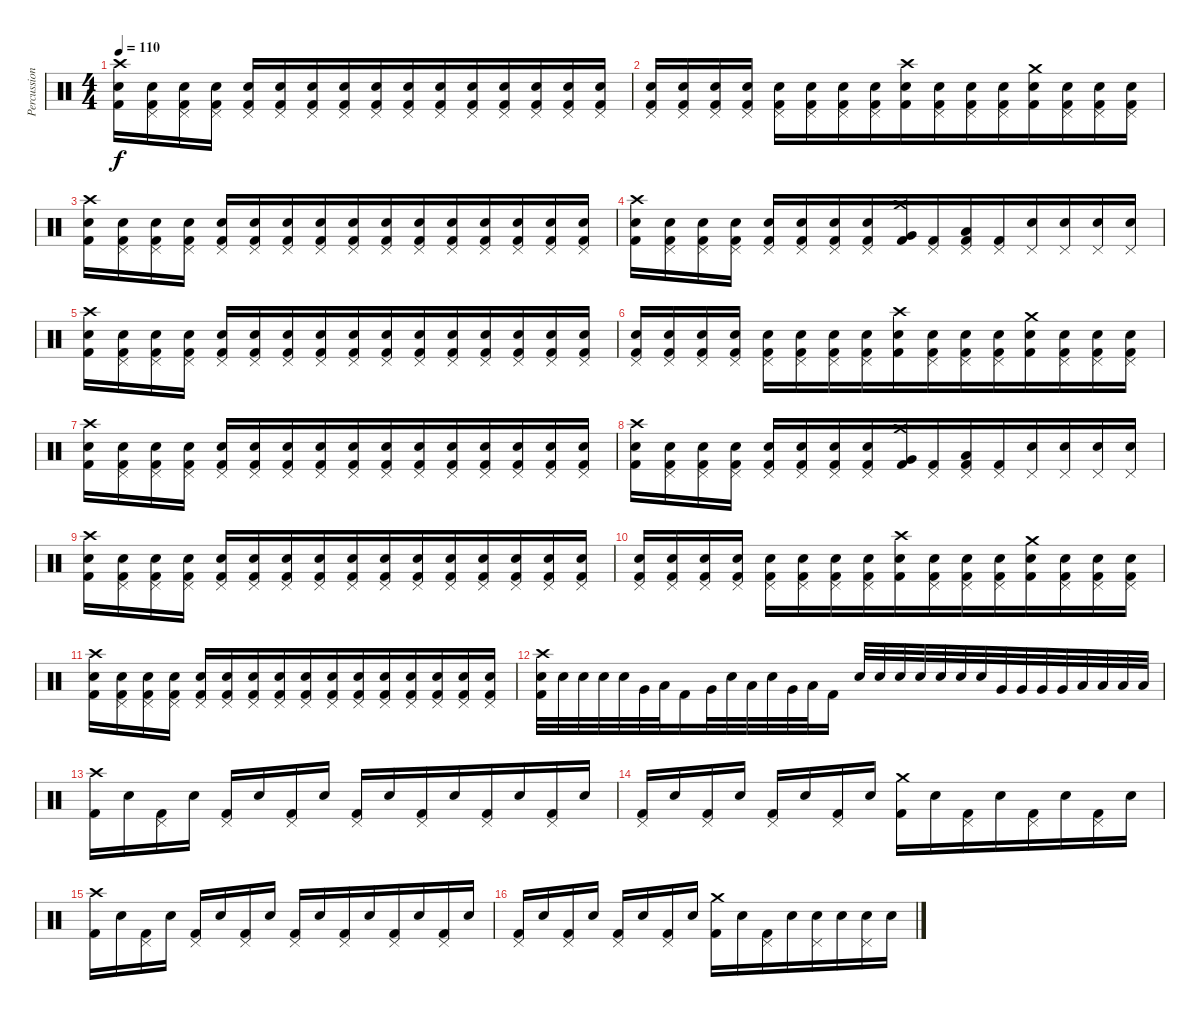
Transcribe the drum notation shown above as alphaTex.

\track ("Percussion" "Percussion") {instrument percussion bank 36}
\staff {score}
\articulation defaults
\ts (4 4)
\tempo 110
\clef neutral
\ks c
("Crash high (hit)" "Electric Snare (hit)" "Kick (hit) 2").16{dy f} ("Pedal Hi-Hat (hit)" "Electric Snare (hit)" "Kick (hit) 2").16 ("Pedal Hi-Hat (hit)" "Electric Snare (hit)" "Kick (hit) 2").16 ("Pedal Hi-Hat (hit)" "Electric Snare (hit)" "Kick (hit) 2").16 ("Pedal Hi-Hat (hit)" "Electric Snare (hit)" "Kick (hit) 2").16 ("Pedal Hi-Hat (hit)" "Electric Snare (hit)" "Kick (hit) 2").16 ("Pedal Hi-Hat (hit)" "Electric Snare (hit)" "Kick (hit) 2").16 ("Pedal Hi-Hat (hit)" "Electric Snare (hit)" "Kick (hit) 2").16{beam merge} ("Pedal Hi-Hat (hit)" "Electric Snare (hit)" "Kick (hit) 2").16{beam merge} ("Pedal Hi-Hat (hit)" "Electric Snare (hit)" "Kick (hit) 2").16{beam merge} ("Pedal Hi-Hat (hit)" "Electric Snare (hit)" "Kick (hit) 2").16 ("Pedal Hi-Hat (hit)" "Electric Snare (hit)" "Kick (hit) 2").16{beam merge} ("Pedal Hi-Hat (hit)" "Electric Snare (hit)" "Kick (hit) 2").16{beam merge} ("Pedal Hi-Hat (hit)" "Electric Snare (hit)" "Kick (hit) 2").16{beam merge} ("Pedal Hi-Hat (hit)" "Electric Snare (hit)" "Kick (hit) 2").16 ("Pedal Hi-Hat (hit)" "Electric Snare (hit)" "Kick (hit) 2").16 |
("Pedal Hi-Hat (hit)" "Electric Snare (hit)" "Kick (hit) 2").16 ("Pedal Hi-Hat (hit)" "Electric Snare (hit)" "Kick (hit) 2").16 ("Pedal Hi-Hat (hit)" "Electric Snare (hit)" "Kick (hit) 2").16 ("Pedal Hi-Hat (hit)" "Electric Snare (hit)" "Kick (hit) 2").16 ("Pedal Hi-Hat (hit)" "Electric Snare (hit)" "Kick (hit) 2").16 ("Pedal Hi-Hat (hit)" "Electric Snare (hit)" "Kick (hit) 2").16 ("Pedal Hi-Hat (hit)" "Electric Snare (hit)" "Kick (hit) 2").16 ("Pedal Hi-Hat (hit)" "Electric Snare (hit)" "Kick (hit) 2").16{beam merge} ("Crash high (hit)" "Electric Snare (hit)" "Kick (hit) 2").16{beam merge} ("Pedal Hi-Hat (hit)" "Electric Snare (hit)" "Kick (hit) 2").16{beam merge} ("Pedal Hi-Hat (hit)" "Electric Snare (hit)" "Kick (hit) 2").16 ("Pedal Hi-Hat (hit)" "Electric Snare (hit)" "Kick (hit) 2").16{beam merge} ("Crash medium (hit)" "Electric Snare (hit)" "Kick (hit) 2").16{beam merge} ("Pedal Hi-Hat (hit)" "Electric Snare (hit)" "Kick (hit) 2").16{beam merge} ("Pedal Hi-Hat (hit)" "Electric Snare (hit)" "Kick (hit) 2").16 ("Pedal Hi-Hat (hit)" "Electric Snare (hit)" "Kick (hit) 2").16 |
("Crash high (hit)" "Electric Snare (hit)" "Kick (hit) 2").16 ("Pedal Hi-Hat (hit)" "Electric Snare (hit)" "Kick (hit) 2").16 ("Pedal Hi-Hat (hit)" "Electric Snare (hit)" "Kick (hit) 2").16 ("Pedal Hi-Hat (hit)" "Electric Snare (hit)" "Kick (hit) 2").16 ("Pedal Hi-Hat (hit)" "Electric Snare (hit)" "Kick (hit) 2").16 ("Pedal Hi-Hat (hit)" "Electric Snare (hit)" "Kick (hit) 2").16 ("Pedal Hi-Hat (hit)" "Electric Snare (hit)" "Kick (hit) 2").16 ("Pedal Hi-Hat (hit)" "Electric Snare (hit)" "Kick (hit) 2").16{beam merge} ("Pedal Hi-Hat (hit)" "Electric Snare (hit)" "Kick (hit) 2").16{beam merge} ("Pedal Hi-Hat (hit)" "Electric Snare (hit)" "Kick (hit) 2").16{beam merge} ("Pedal Hi-Hat (hit)" "Electric Snare (hit)" "Kick (hit) 2").16 ("Pedal Hi-Hat (hit)" "Electric Snare (hit)" "Kick (hit) 2").16{beam merge} ("Pedal Hi-Hat (hit)" "Electric Snare (hit)" "Kick (hit) 2").16{beam merge} ("Pedal Hi-Hat (hit)" "Electric Snare (hit)" "Kick (hit) 2").16{beam merge} ("Pedal Hi-Hat (hit)" "Electric Snare (hit)" "Kick (hit) 2").16 ("Pedal Hi-Hat (hit)" "Electric Snare (hit)" "Kick (hit) 2").16 |
("Crash high (hit)" "Electric Snare (hit)" "Kick (hit) 2").16 ("Pedal Hi-Hat (hit)" "Electric Snare (hit)" "Kick (hit) 2").16 ("Pedal Hi-Hat (hit)" "Electric Snare (hit)" "Kick (hit) 2").16 ("Pedal Hi-Hat (hit)" "Electric Snare (hit)" "Kick (hit) 2").16 ("Pedal Hi-Hat (hit)" "Electric Snare (hit)" "Kick (hit) 2").16 ("Pedal Hi-Hat (hit)" "Electric Snare (hit)" "Kick (hit) 2").16 ("Pedal Hi-Hat (hit)" "Electric Snare (hit)" "Kick (hit) 2").16 ("Pedal Hi-Hat (hit)" "Electric Snare (hit)" "Kick (hit) 2").16{beam merge} ("Crash medium (hit)" "Very Low Tom (hit)" "Kick (hit) 2").16{beam merge} ("Pedal Hi-Hat (hit)" "Kick (hit) 2").16{beam merge} ("Pedal Hi-Hat (hit)" "Low Tom (hit)" "Kick (hit) 2").16 ("Pedal Hi-Hat (hit)" "Kick (hit) 2").16{beam merge} ("Pedal Hi-Hat (hit)" "Electric Snare (hit)").16{beam merge} ("Pedal Hi-Hat (hit)" "Electric Snare (hit)").16{beam merge} ("Pedal Hi-Hat (hit)" "Electric Snare (hit)").16 ("Pedal Hi-Hat (hit)" "Electric Snare (hit)").16 |
("Crash high (hit)" "Electric Snare (hit)" "Kick (hit) 2").16 ("Pedal Hi-Hat (hit)" "Electric Snare (hit)" "Kick (hit) 2").16 ("Pedal Hi-Hat (hit)" "Electric Snare (hit)" "Kick (hit) 2").16 ("Pedal Hi-Hat (hit)" "Electric Snare (hit)" "Kick (hit) 2").16 ("Pedal Hi-Hat (hit)" "Electric Snare (hit)" "Kick (hit) 2").16 ("Pedal Hi-Hat (hit)" "Electric Snare (hit)" "Kick (hit) 2").16 ("Pedal Hi-Hat (hit)" "Electric Snare (hit)" "Kick (hit) 2").16 ("Pedal Hi-Hat (hit)" "Electric Snare (hit)" "Kick (hit) 2").16{beam merge} ("Pedal Hi-Hat (hit)" "Electric Snare (hit)" "Kick (hit) 2").16{beam merge} ("Pedal Hi-Hat (hit)" "Electric Snare (hit)" "Kick (hit) 2").16{beam merge} ("Pedal Hi-Hat (hit)" "Electric Snare (hit)" "Kick (hit) 2").16 ("Pedal Hi-Hat (hit)" "Electric Snare (hit)" "Kick (hit) 2").16{beam merge} ("Pedal Hi-Hat (hit)" "Electric Snare (hit)" "Kick (hit) 2").16{beam merge} ("Pedal Hi-Hat (hit)" "Electric Snare (hit)" "Kick (hit) 2").16{beam merge} ("Pedal Hi-Hat (hit)" "Electric Snare (hit)" "Kick (hit) 2").16 ("Pedal Hi-Hat (hit)" "Electric Snare (hit)" "Kick (hit) 2").16 |
("Pedal Hi-Hat (hit)" "Electric Snare (hit)" "Kick (hit) 2").16 ("Pedal Hi-Hat (hit)" "Electric Snare (hit)" "Kick (hit) 2").16 ("Pedal Hi-Hat (hit)" "Electric Snare (hit)" "Kick (hit) 2").16 ("Pedal Hi-Hat (hit)" "Electric Snare (hit)" "Kick (hit) 2").16 ("Pedal Hi-Hat (hit)" "Electric Snare (hit)" "Kick (hit) 2").16 ("Pedal Hi-Hat (hit)" "Electric Snare (hit)" "Kick (hit) 2").16 ("Pedal Hi-Hat (hit)" "Electric Snare (hit)" "Kick (hit) 2").16 ("Pedal Hi-Hat (hit)" "Electric Snare (hit)" "Kick (hit) 2").16{beam merge} ("Crash high (hit)" "Electric Snare (hit)" "Kick (hit) 2").16{beam merge} ("Pedal Hi-Hat (hit)" "Electric Snare (hit)" "Kick (hit) 2").16{beam merge} ("Pedal Hi-Hat (hit)" "Electric Snare (hit)" "Kick (hit) 2").16 ("Pedal Hi-Hat (hit)" "Electric Snare (hit)" "Kick (hit) 2").16{beam merge} ("Crash medium (hit)" "Electric Snare (hit)" "Kick (hit) 2").16{beam merge} ("Pedal Hi-Hat (hit)" "Electric Snare (hit)" "Kick (hit) 2").16{beam merge} ("Pedal Hi-Hat (hit)" "Electric Snare (hit)" "Kick (hit) 2").16 ("Pedal Hi-Hat (hit)" "Electric Snare (hit)" "Kick (hit) 2").16 |
("Crash high (hit)" "Electric Snare (hit)" "Kick (hit) 2").16 ("Pedal Hi-Hat (hit)" "Electric Snare (hit)" "Kick (hit) 2").16 ("Pedal Hi-Hat (hit)" "Electric Snare (hit)" "Kick (hit) 2").16 ("Pedal Hi-Hat (hit)" "Electric Snare (hit)" "Kick (hit) 2").16 ("Pedal Hi-Hat (hit)" "Electric Snare (hit)" "Kick (hit) 2").16 ("Pedal Hi-Hat (hit)" "Electric Snare (hit)" "Kick (hit) 2").16 ("Pedal Hi-Hat (hit)" "Electric Snare (hit)" "Kick (hit) 2").16 ("Pedal Hi-Hat (hit)" "Electric Snare (hit)" "Kick (hit) 2").16{beam merge} ("Pedal Hi-Hat (hit)" "Electric Snare (hit)" "Kick (hit) 2").16{beam merge} ("Pedal Hi-Hat (hit)" "Electric Snare (hit)" "Kick (hit) 2").16{beam merge} ("Pedal Hi-Hat (hit)" "Electric Snare (hit)" "Kick (hit) 2").16 ("Pedal Hi-Hat (hit)" "Electric Snare (hit)" "Kick (hit) 2").16{beam merge} ("Pedal Hi-Hat (hit)" "Electric Snare (hit)" "Kick (hit) 2").16{beam merge} ("Pedal Hi-Hat (hit)" "Electric Snare (hit)" "Kick (hit) 2").16{beam merge} ("Pedal Hi-Hat (hit)" "Electric Snare (hit)" "Kick (hit) 2").16 ("Pedal Hi-Hat (hit)" "Electric Snare (hit)" "Kick (hit) 2").16 |
("Crash high (hit)" "Electric Snare (hit)" "Kick (hit) 2").16 ("Pedal Hi-Hat (hit)" "Electric Snare (hit)" "Kick (hit) 2").16 ("Pedal Hi-Hat (hit)" "Electric Snare (hit)" "Kick (hit) 2").16 ("Pedal Hi-Hat (hit)" "Electric Snare (hit)" "Kick (hit) 2").16 ("Pedal Hi-Hat (hit)" "Electric Snare (hit)" "Kick (hit) 2").16 ("Pedal Hi-Hat (hit)" "Electric Snare (hit)" "Kick (hit) 2").16 ("Pedal Hi-Hat (hit)" "Electric Snare (hit)" "Kick (hit) 2").16 ("Pedal Hi-Hat (hit)" "Electric Snare (hit)" "Kick (hit) 2").16{beam merge} ("Crash medium (hit)" "Very Low Tom (hit)" "Kick (hit) 2").16{beam merge} ("Pedal Hi-Hat (hit)" "Kick (hit) 2").16{beam merge} ("Pedal Hi-Hat (hit)" "Low Tom (hit)" "Kick (hit) 2").16 ("Pedal Hi-Hat (hit)" "Kick (hit) 2").16{beam merge} ("Pedal Hi-Hat (hit)" "Electric Snare (hit)").16{beam merge} ("Pedal Hi-Hat (hit)" "Electric Snare (hit)").16{beam merge} ("Pedal Hi-Hat (hit)" "Electric Snare (hit)").16 ("Pedal Hi-Hat (hit)" "Electric Snare (hit)").16 |
("Crash high (hit)" "Electric Snare (hit)" "Kick (hit) 2").16 ("Pedal Hi-Hat (hit)" "Electric Snare (hit)" "Kick (hit) 2").16 ("Pedal Hi-Hat (hit)" "Electric Snare (hit)" "Kick (hit) 2").16 ("Pedal Hi-Hat (hit)" "Electric Snare (hit)" "Kick (hit) 2").16 ("Pedal Hi-Hat (hit)" "Electric Snare (hit)" "Kick (hit) 2").16 ("Pedal Hi-Hat (hit)" "Electric Snare (hit)" "Kick (hit) 2").16 ("Pedal Hi-Hat (hit)" "Electric Snare (hit)" "Kick (hit) 2").16 ("Pedal Hi-Hat (hit)" "Electric Snare (hit)" "Kick (hit) 2").16{beam merge} ("Pedal Hi-Hat (hit)" "Electric Snare (hit)" "Kick (hit) 2").16{beam merge} ("Pedal Hi-Hat (hit)" "Electric Snare (hit)" "Kick (hit) 2").16{beam merge} ("Pedal Hi-Hat (hit)" "Electric Snare (hit)" "Kick (hit) 2").16 ("Pedal Hi-Hat (hit)" "Electric Snare (hit)" "Kick (hit) 2").16{beam merge} ("Pedal Hi-Hat (hit)" "Electric Snare (hit)" "Kick (hit) 2").16{beam merge} ("Pedal Hi-Hat (hit)" "Electric Snare (hit)" "Kick (hit) 2").16{beam merge} ("Pedal Hi-Hat (hit)" "Electric Snare (hit)" "Kick (hit) 2").16 ("Pedal Hi-Hat (hit)" "Electric Snare (hit)" "Kick (hit) 2").16 |
("Pedal Hi-Hat (hit)" "Electric Snare (hit)" "Kick (hit) 2").16 ("Pedal Hi-Hat (hit)" "Electric Snare (hit)" "Kick (hit) 2").16 ("Pedal Hi-Hat (hit)" "Electric Snare (hit)" "Kick (hit) 2").16 ("Pedal Hi-Hat (hit)" "Electric Snare (hit)" "Kick (hit) 2").16 ("Pedal Hi-Hat (hit)" "Electric Snare (hit)" "Kick (hit) 2").16 ("Pedal Hi-Hat (hit)" "Electric Snare (hit)" "Kick (hit) 2").16 ("Pedal Hi-Hat (hit)" "Electric Snare (hit)" "Kick (hit) 2").16 ("Pedal Hi-Hat (hit)" "Electric Snare (hit)" "Kick (hit) 2").16{beam merge} ("Crash high (hit)" "Electric Snare (hit)" "Kick (hit) 2").16{beam merge} ("Pedal Hi-Hat (hit)" "Electric Snare (hit)" "Kick (hit) 2").16{beam merge} ("Pedal Hi-Hat (hit)" "Electric Snare (hit)" "Kick (hit) 2").16 ("Pedal Hi-Hat (hit)" "Electric Snare (hit)" "Kick (hit) 2").16{beam merge} ("Crash medium (hit)" "Electric Snare (hit)" "Kick (hit) 2").16{beam merge} ("Pedal Hi-Hat (hit)" "Electric Snare (hit)" "Kick (hit) 2").16{beam merge} ("Pedal Hi-Hat (hit)" "Electric Snare (hit)" "Kick (hit) 2").16 ("Pedal Hi-Hat (hit)" "Electric Snare (hit)" "Kick (hit) 2").16 |
("Crash high (hit)" "Electric Snare (hit)" "Kick (hit) 2").16 ("Pedal Hi-Hat (hit)" "Electric Snare (hit)" "Kick (hit) 2").16 ("Pedal Hi-Hat (hit)" "Electric Snare (hit)" "Kick (hit) 2").16 ("Pedal Hi-Hat (hit)" "Electric Snare (hit)" "Kick (hit) 2").16 ("Pedal Hi-Hat (hit)" "Electric Snare (hit)" "Kick (hit) 2").16 ("Pedal Hi-Hat (hit)" "Electric Snare (hit)" "Kick (hit) 2").16 ("Pedal Hi-Hat (hit)" "Electric Snare (hit)" "Kick (hit) 2").16 ("Pedal Hi-Hat (hit)" "Electric Snare (hit)" "Kick (hit) 2").16{beam merge} ("Pedal Hi-Hat (hit)" "Electric Snare (hit)" "Kick (hit) 2").16{beam merge} ("Pedal Hi-Hat (hit)" "Electric Snare (hit)" "Kick (hit) 2").16{beam merge} ("Pedal Hi-Hat (hit)" "Electric Snare (hit)" "Kick (hit) 2").16 ("Pedal Hi-Hat (hit)" "Electric Snare (hit)" "Kick (hit) 2").16{beam merge} ("Pedal Hi-Hat (hit)" "Electric Snare (hit)" "Kick (hit) 2").16{beam merge} ("Pedal Hi-Hat (hit)" "Electric Snare (hit)" "Kick (hit) 2").16{beam merge} ("Pedal Hi-Hat (hit)" "Electric Snare (hit)" "Kick (hit) 2").16 ("Pedal Hi-Hat (hit)" "Electric Snare (hit)" "Kick (hit) 2").16 |
("Crash high (hit)" "Electric Snare (hit)" "Kick (hit) 2").32 "Electric Snare (hit)".32 "Electric Snare (hit)".32 "Electric Snare (hit)".32 "Electric Snare (hit)".32 "Very Low Tom (hit)".32 "Low Floor Tom (hit)".32 "Kick (hit) 2".16{beam merge} "Very Low Tom (hit)".32{beam merge} "Electric Snare (hit)".32{beam merge} "Low Tom (hit)".32 "Electric Snare (hit)".32{beam merge} "Very Low Tom (hit)".32{beam merge} "Low Floor Tom (hit)".32{beam merge} "Kick (hit) 2".16 "Electric Snare (hit)".32{beam merge} "Electric Snare (hit)".32 "Electric Snare (hit)".32 "Electric Snare (hit)".32 "Electric Snare (hit)".32 "Electric Snare (hit)".32 "Electric Snare (hit)".32{beam merge} "Very Low Tom (hit)".32 "Very Low Tom (hit)".32{beam merge} "Very Low Tom (hit)".32 "Very Low Tom (hit)".32{beam merge} "Low Floor Tom (hit)".32 "Low Floor Tom (hit)".32 "Low Floor Tom (hit)".32{beam merge} "Low Floor Tom (hit)".32 |
("Crash high (hit)" "Kick (hit) 2").16 "Electric Snare (hit)".16{beam merge} ("Pedal Hi-Hat (hit)" "Kick (hit) 2").16 "Electric Snare (hit)".16 ("Pedal Hi-Hat (hit)" "Kick (hit) 2").16{beam merge} "Electric Snare (hit)".16{beam merge} ("Pedal Hi-Hat (hit)" "Kick (hit) 2").16 "Electric Snare (hit)".16 ("Pedal Hi-Hat (hit)" "Kick (hit) 2").16 "Electric Snare (hit)".16{beam merge} ("Pedal Hi-Hat (hit)" "Kick (hit) 2").16 "Electric Snare (hit)".16{beam merge} ("Pedal Hi-Hat (hit)" "Kick (hit) 2").16{beam merge} "Electric Snare (hit)".16{beam merge} ("Pedal Hi-Hat (hit)" "Kick (hit) 2").16{beam merge} "Electric Snare (hit)".16 |
("Pedal Hi-Hat (hit)" "Kick (hit) 2").16 "Electric Snare (hit)".16{beam merge} ("Pedal Hi-Hat (hit)" "Kick (hit) 2").16 "Electric Snare (hit)".16 ("Pedal Hi-Hat (hit)" "Kick (hit) 2").16{beam merge} "Electric Snare (hit)".16{beam merge} ("Pedal Hi-Hat (hit)" "Kick (hit) 2").16 "Electric Snare (hit)".16 ("Crash medium (hit)" "Kick (hit) 2").16 "Electric Snare (hit)".16{beam merge} ("Pedal Hi-Hat (hit)" "Kick (hit) 2").16 "Electric Snare (hit)".16{beam merge} ("Pedal Hi-Hat (hit)" "Kick (hit) 2").16{beam merge} "Electric Snare (hit)".16{beam merge} ("Pedal Hi-Hat (hit)" "Kick (hit) 2").16{beam merge} "Electric Snare (hit)".16 |
("Crash high (hit)" "Kick (hit) 2").16 "Electric Snare (hit)".16{beam merge} ("Pedal Hi-Hat (hit)" "Kick (hit) 2").16 "Electric Snare (hit)".16 ("Pedal Hi-Hat (hit)" "Kick (hit) 2").16{beam merge} "Electric Snare (hit)".16{beam merge} ("Pedal Hi-Hat (hit)" "Kick (hit) 2").16 "Electric Snare (hit)".16 ("Pedal Hi-Hat (hit)" "Kick (hit) 2").16 "Electric Snare (hit)".16{beam merge} ("Pedal Hi-Hat (hit)" "Kick (hit) 2").16 "Electric Snare (hit)".16{beam merge} ("Pedal Hi-Hat (hit)" "Kick (hit) 2").16{beam merge} "Electric Snare (hit)".16{beam merge} ("Pedal Hi-Hat (hit)" "Kick (hit) 2").16{beam merge} "Electric Snare (hit)".16 |
("Pedal Hi-Hat (hit)" "Kick (hit) 2").16 "Electric Snare (hit)".16{beam merge} ("Pedal Hi-Hat (hit)" "Kick (hit) 2").16 "Electric Snare (hit)".16 ("Pedal Hi-Hat (hit)" "Kick (hit) 2").16{beam merge} "Electric Snare (hit)".16{beam merge} ("Pedal Hi-Hat (hit)" "Kick (hit) 2").16 "Electric Snare (hit)".16 ("Crash medium (hit)" "Kick (hit) 2").16 "Electric Snare (hit)".16{beam merge} ("Pedal Hi-Hat (hit)" "Kick (hit) 2").16 "Electric Snare (hit)".16{beam merge} ("Pedal Hi-Hat (hit)" "Electric Snare (hit)").16{beam merge} "Electric Snare (hit)".16{beam merge} ("Pedal Hi-Hat (hit)" "Electric Snare (hit)").16{beam merge} "Electric Snare (hit)".16
